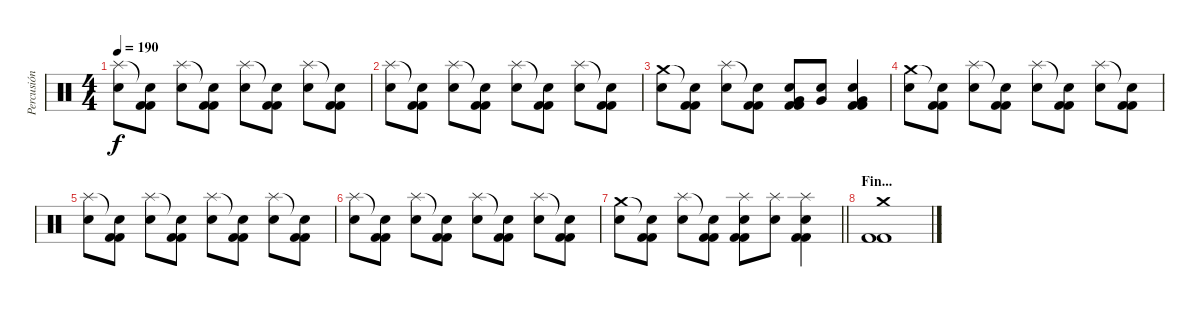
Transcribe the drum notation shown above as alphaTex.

\track ("Percusión" "Percusión") {instrument percussion}
\staff {score}
\articulation defaults
\ts (4 4)
\tempo 190
\clef neutral
\ks c
("Splash (hit)" "Electric Snare (hit)").8{dy f} ("Snare (hit)"{t} "Kick (hit) 2" "Kick (hit) 2").8 ("Splash (hit)" "Electric Snare (hit)").8 ("Snare (hit)"{t} "Kick (hit) 2" "Kick (hit) 2").8 ("Splash (hit)" "Electric Snare (hit)").8 ("Snare (hit)"{t} "Kick (hit) 2" "Kick (hit) 2").8 ("Splash (hit)" "Electric Snare (hit)").8 ("Snare (hit)"{t} "Kick (hit) 2" "Kick (hit) 2").8 |
("Splash (hit)" "Electric Snare (hit)").8 ("Snare (hit)"{t} "Kick (hit) 2" "Kick (hit) 2").8 ("Splash (hit)" "Electric Snare (hit)").8 ("Snare (hit)"{t} "Kick (hit) 2" "Kick (hit) 2").8 ("Splash (hit)" "Electric Snare (hit)").8 ("Snare (hit)"{t} "Kick (hit) 2" "Kick (hit) 2").8 ("Splash (hit)" "Electric Snare (hit)").8 ("Snare (hit)"{t} "Kick (hit) 2" "Kick (hit) 2").8 |
("Crash medium (hit)" "Electric Snare (hit)").8 ("Snare (hit)"{t} "Kick (hit) 2" "Kick (hit) 2").8 ("Splash (hit)" "Electric Snare (hit)").8 ("Snare (hit)"{t} "Kick (hit) 2" "Kick (hit) 2").8 ("Electric Snare (hit)" "Very Low Tom (hit)" "Kick (hit) 2" "Kick (hit) 2").8 ("Electric Snare (hit)" "Very Low Tom (hit)").8 ("Electric Snare (hit)" "Very Low Tom (hit)" "Kick (hit) 2" "Kick (hit) 2").4 |
("Crash medium (hit)" "Electric Snare (hit)").8 ("Snare (hit)"{t} "Kick (hit) 2" "Kick (hit) 2").8 ("Splash (hit)" "Electric Snare (hit)").8 ("Snare (hit)"{t} "Kick (hit) 2" "Kick (hit) 2").8 ("Splash (hit)" "Electric Snare (hit)").8 ("Snare (hit)"{t} "Kick (hit) 2" "Kick (hit) 2").8 ("Splash (hit)" "Electric Snare (hit)").8 ("Snare (hit)"{t} "Kick (hit) 2" "Kick (hit) 2").8 |
("Splash (hit)" "Electric Snare (hit)").8 ("Snare (hit)"{t} "Kick (hit) 2" "Kick (hit) 2").8 ("Splash (hit)" "Electric Snare (hit)").8 ("Snare (hit)"{t} "Kick (hit) 2" "Kick (hit) 2").8 ("Splash (hit)" "Electric Snare (hit)").8 ("Snare (hit)"{t} "Kick (hit) 2" "Kick (hit) 2").8 ("Splash (hit)" "Electric Snare (hit)").8 ("Snare (hit)"{t} "Kick (hit) 2" "Kick (hit) 2").8 |
("Splash (hit)" "Electric Snare (hit)").8 ("Snare (hit)"{t} "Kick (hit) 2" "Kick (hit) 2").8 ("Splash (hit)" "Electric Snare (hit)").8 ("Snare (hit)"{t} "Kick (hit) 2" "Kick (hit) 2").8 ("Splash (hit)" "Electric Snare (hit)").8 ("Snare (hit)"{t} "Kick (hit) 2" "Kick (hit) 2").8 ("Splash (hit)" "Electric Snare (hit)").8 ("Snare (hit)"{t} "Kick (hit) 2" "Kick (hit) 2").8 |
\barLineRight lightlight
("Crash medium (hit)" "Electric Snare (hit)").8 ("Snare (hit)"{t} "Kick (hit) 2" "Kick (hit) 2").8 ("Splash (hit)" "Electric Snare (hit)").8 ("Snare (hit)"{t} "Kick (hit) 2" "Kick (hit) 2").8 ("Splash (hit)" "Electric Snare (hit)" "Kick (hit) 2" "Kick (hit) 2").8 ("Splash (hit)" "Electric Snare (hit)").8 ("Splash (hit)" "Electric Snare (hit)" "Kick (hit) 2" "Kick (hit) 2").4 |
\section ("" "Fin...")
("Crash medium (hit)" "Kick (hit) 2" "Kick (hit) 2").1
